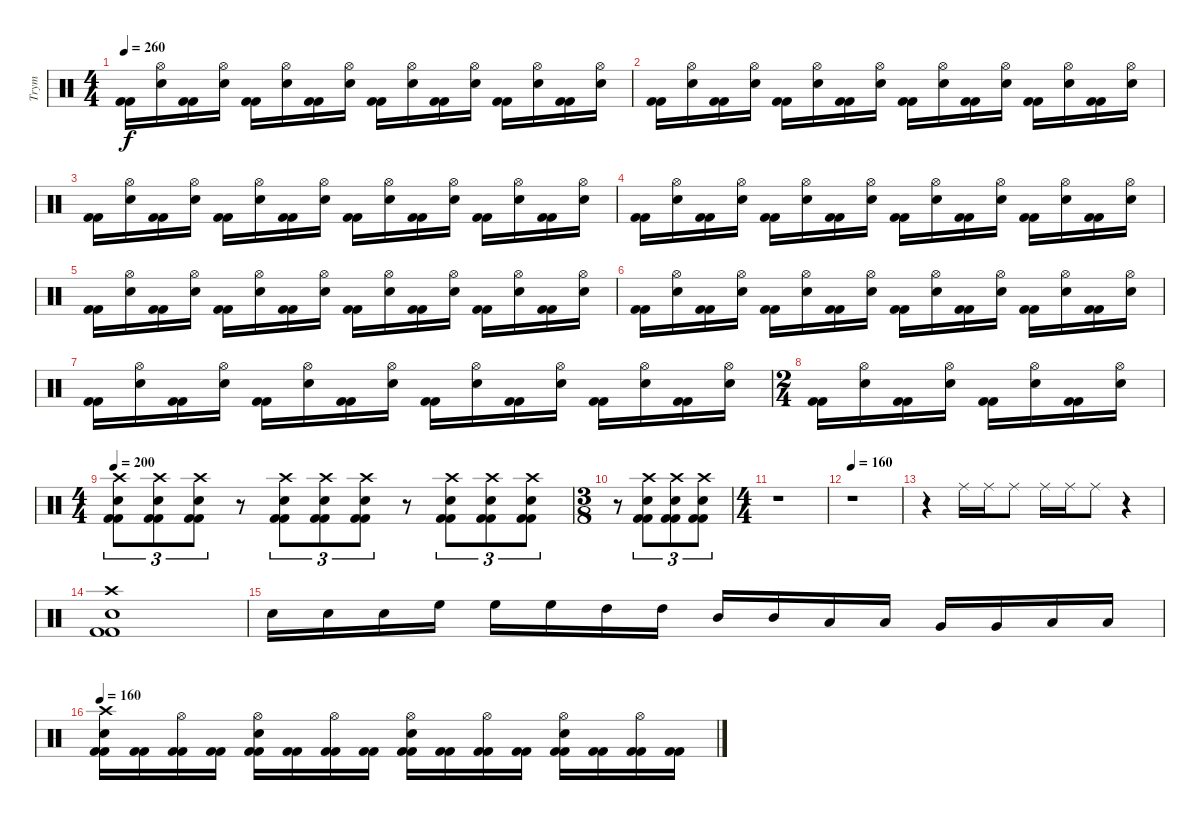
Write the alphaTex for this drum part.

\track ("Trym" "Trym") {instrument percussion}
\staff {score}
\articulation defaults
\ts (4 4)
\tempo 260
\clef neutral
\ks c
("Kick (hit) 2" "Kick (hit) 2").16{dy f} ("Hi-Hat (open)" "Snare (hit) 2").16 ("Kick (hit) 2" "Kick (hit) 2").16 ("Hi-Hat (open)" "Snare (hit) 2").16 ("Kick (hit) 2" "Kick (hit) 2").16 ("Hi-Hat (open)" "Snare (hit) 2").16 ("Kick (hit) 2" "Kick (hit) 2").16 ("Hi-Hat (open)" "Snare (hit) 2").16 ("Kick (hit) 2" "Kick (hit) 2").16 ("Hi-Hat (open)" "Snare (hit) 2").16 ("Kick (hit) 2" "Kick (hit) 2").16 ("Hi-Hat (open)" "Snare (hit) 2").16 ("Kick (hit) 2" "Kick (hit) 2").16 ("Hi-Hat (open)" "Snare (hit) 2").16 ("Kick (hit) 2" "Kick (hit) 2").16 ("Hi-Hat (open)" "Snare (hit) 2").16 |
("Kick (hit) 2" "Kick (hit) 2").16 ("Hi-Hat (open)" "Snare (hit) 2").16 ("Kick (hit) 2" "Kick (hit) 2").16 ("Hi-Hat (open)" "Snare (hit) 2").16 ("Kick (hit) 2" "Kick (hit) 2").16 ("Hi-Hat (open)" "Snare (hit) 2").16 ("Kick (hit) 2" "Kick (hit) 2").16 ("Hi-Hat (open)" "Snare (hit) 2").16 ("Kick (hit) 2" "Kick (hit) 2").16 ("Hi-Hat (open)" "Snare (hit) 2").16 ("Kick (hit) 2" "Kick (hit) 2").16 ("Hi-Hat (open)" "Snare (hit) 2").16 ("Kick (hit) 2" "Kick (hit) 2").16 ("Hi-Hat (open)" "Snare (hit) 2").16 ("Kick (hit) 2" "Kick (hit) 2").16 ("Hi-Hat (open)" "Snare (hit) 2").16 |
("Kick (hit) 2" "Kick (hit) 2").16 ("Hi-Hat (open)" "Snare (hit) 2").16 ("Kick (hit) 2" "Kick (hit) 2").16 ("Hi-Hat (open)" "Snare (hit) 2").16 ("Kick (hit) 2" "Kick (hit) 2").16 ("Hi-Hat (open)" "Snare (hit) 2").16 ("Kick (hit) 2" "Kick (hit) 2").16 ("Hi-Hat (open)" "Snare (hit) 2").16 ("Kick (hit) 2" "Kick (hit) 2").16 ("Hi-Hat (open)" "Snare (hit) 2").16 ("Kick (hit) 2" "Kick (hit) 2").16 ("Hi-Hat (open)" "Snare (hit) 2").16 ("Kick (hit) 2" "Kick (hit) 2").16 ("Hi-Hat (open)" "Snare (hit) 2").16 ("Kick (hit) 2" "Kick (hit) 2").16 ("Hi-Hat (open)" "Snare (hit) 2").16 |
("Kick (hit) 2" "Kick (hit) 2").16 ("Hi-Hat (open)" "Snare (hit) 2").16 ("Kick (hit) 2" "Kick (hit) 2").16 ("Hi-Hat (open)" "Snare (hit) 2").16 ("Kick (hit) 2" "Kick (hit) 2").16 ("Hi-Hat (open)" "Snare (hit) 2").16 ("Kick (hit) 2" "Kick (hit) 2").16 ("Hi-Hat (open)" "Snare (hit) 2").16 ("Kick (hit) 2" "Kick (hit) 2").16 ("Hi-Hat (open)" "Snare (hit) 2").16 ("Kick (hit) 2" "Kick (hit) 2").16 ("Hi-Hat (open)" "Snare (hit) 2").16 ("Kick (hit) 2" "Kick (hit) 2").16 ("Hi-Hat (open)" "Snare (hit) 2").16 ("Kick (hit) 2" "Kick (hit) 2").16 ("Hi-Hat (open)" "Snare (hit) 2").16 |
("Kick (hit) 2" "Kick (hit) 2").16 ("Hi-Hat (open)" "Snare (hit) 2").16 ("Kick (hit) 2" "Kick (hit) 2").16 ("Hi-Hat (open)" "Snare (hit) 2").16 ("Kick (hit) 2" "Kick (hit) 2").16 ("Hi-Hat (open)" "Snare (hit) 2").16 ("Kick (hit) 2" "Kick (hit) 2").16 ("Hi-Hat (open)" "Snare (hit) 2").16 ("Kick (hit) 2" "Kick (hit) 2").16 ("Hi-Hat (open)" "Snare (hit) 2").16 ("Kick (hit) 2" "Kick (hit) 2").16 ("Hi-Hat (open)" "Snare (hit) 2").16 ("Kick (hit) 2" "Kick (hit) 2").16 ("Hi-Hat (open)" "Snare (hit) 2").16 ("Kick (hit) 2" "Kick (hit) 2").16 ("Hi-Hat (open)" "Snare (hit) 2").16 |
("Kick (hit) 2" "Kick (hit) 2").16 ("Hi-Hat (open)" "Snare (hit) 2").16 ("Kick (hit) 2" "Kick (hit) 2").16 ("Hi-Hat (open)" "Snare (hit) 2").16 ("Kick (hit) 2" "Kick (hit) 2").16 ("Hi-Hat (open)" "Snare (hit) 2").16 ("Kick (hit) 2" "Kick (hit) 2").16 ("Hi-Hat (open)" "Snare (hit) 2").16 ("Kick (hit) 2" "Kick (hit) 2").16 ("Hi-Hat (open)" "Snare (hit) 2").16 ("Kick (hit) 2" "Kick (hit) 2").16 ("Hi-Hat (open)" "Snare (hit) 2").16 ("Kick (hit) 2" "Kick (hit) 2").16 ("Hi-Hat (open)" "Snare (hit) 2").16 ("Kick (hit) 2" "Kick (hit) 2").16 ("Hi-Hat (open)" "Snare (hit) 2").16 |
("Kick (hit) 2" "Kick (hit) 2").16 ("Hi-Hat (open)" "Snare (hit) 2").16 ("Kick (hit) 2" "Kick (hit) 2").16 ("Hi-Hat (open)" "Snare (hit) 2").16 ("Kick (hit) 2" "Kick (hit) 2").16 ("Hi-Hat (open)" "Snare (hit) 2").16 ("Kick (hit) 2" "Kick (hit) 2").16 ("Hi-Hat (open)" "Snare (hit) 2").16 ("Kick (hit) 2" "Kick (hit) 2").16 ("Hi-Hat (open)" "Snare (hit) 2").16 ("Kick (hit) 2" "Kick (hit) 2").16 ("Hi-Hat (open)" "Snare (hit) 2").16 ("Kick (hit) 2" "Kick (hit) 2").16 ("Hi-Hat (open)" "Snare (hit) 2").16 ("Kick (hit) 2" "Kick (hit) 2").16 ("Hi-Hat (open)" "Snare (hit) 2").16 |
\ts (2 4)
("Kick (hit) 2" "Kick (hit) 2").16 ("Hi-Hat (open)" "Snare (hit) 2").16 ("Kick (hit) 2" "Kick (hit) 2").16 ("Hi-Hat (open)" "Snare (hit) 2").16 ("Kick (hit) 2" "Kick (hit) 2").16 ("Hi-Hat (open)" "Snare (hit) 2").16 ("Kick (hit) 2" "Kick (hit) 2").16 ("Hi-Hat (open)" "Snare (hit) 2").16 |
\ts (4 4)
\tempo 200
("Kick (hit) 2" "Crash high (hit)" "Snare (hit) 2" "Kick (hit) 2").8{tu (3 2)} ("Kick (hit) 2" "Crash high (hit)" "Snare (hit) 2" "Kick (hit) 2").8{tu (3 2)} ("Kick (hit) 2" "Crash high (hit)" "Snare (hit) 2" "Kick (hit) 2").8{tu (3 2)} r.8 ("Kick (hit) 2" "Crash high (hit)" "Snare (hit) 2" "Kick (hit) 2").8{tu (3 2)} ("Kick (hit) 2" "Crash high (hit)" "Snare (hit) 2" "Kick (hit) 2").8{tu (3 2)} ("Kick (hit) 2" "Crash high (hit)" "Snare (hit) 2" "Kick (hit) 2").8{tu (3 2)} r.8 ("Kick (hit) 2" "Crash high (hit)" "Snare (hit) 2" "Kick (hit) 2").8{tu (3 2)} ("Kick (hit) 2" "Crash high (hit)" "Snare (hit) 2" "Kick (hit) 2").8{tu (3 2)} ("Kick (hit) 2" "Crash high (hit)" "Snare (hit) 2" "Kick (hit) 2").8{tu (3 2)} |
\ts (3 8)
r.8 ("Kick (hit) 2" "Crash high (hit)" "Snare (hit) 2" "Kick (hit) 2").8{tu (3 2)} ("Kick (hit) 2" "Crash high (hit)" "Snare (hit) 2" "Kick (hit) 2").8{tu (3 2)} ("Kick (hit) 2" "Crash high (hit)" "Snare (hit) 2" "Kick (hit) 2").8{tu (3 2)} |
\ts (4 4)
r.1 |
\tempo 160
r.1 |
r.4 "Ride (middle)".16 "Ride (middle)".16 "Ride (middle)".8 "Ride (middle)".16 "Ride (middle)".16 "Ride (middle)".8 r.4 |
("Kick (hit) 2" "Crash high (hit)" "Snare (hit) 2" "Kick (hit) 2").1 |
"Snare (hit) 2".16 "Snare (hit) 2".16 "Snare (hit) 2".16 "High Floor Tom (hit)".16 "High Floor Tom (hit)".16 "High Floor Tom (hit)".16 "High Tom (hit)".16 "High Tom (hit)".16 "Mid Tom (hit)".16 "Mid Tom (hit)".16 "Low Tom (hit)".16 "Low Tom (hit)".16 "Very Low Tom (hit)".16 "Very Low Tom (hit)".16 "Low Floor Tom (hit)".16 "Low Floor Tom (hit)".16 |
\tempo 160
("Kick (hit) 2" "Crash high (hit)" "Snare (hit) 2" "Kick (hit) 2").16 ("Kick (hit) 2" "Kick (hit) 2").16 ("Kick (hit) 2" "Hi-Hat (open)" "Kick (hit) 2").16 ("Kick (hit) 2" "Kick (hit) 2").16 ("Kick (hit) 2" "Hi-Hat (open)" "Snare (hit) 2" "Kick (hit) 2").16 ("Kick (hit) 2" "Kick (hit) 2").16 ("Kick (hit) 2" "Hi-Hat (open)" "Kick (hit) 2").16 ("Kick (hit) 2" "Kick (hit) 2").16 ("Kick (hit) 2" "Hi-Hat (open)" "Snare (hit) 2" "Kick (hit) 2").16 ("Kick (hit) 2" "Kick (hit) 2").16 ("Kick (hit) 2" "Hi-Hat (open)" "Kick (hit) 2").16 ("Kick (hit) 2" "Kick (hit) 2").16 ("Kick (hit) 2" "Hi-Hat (open)" "Snare (hit) 2" "Kick (hit) 2").16 ("Kick (hit) 2" "Kick (hit) 2").16 ("Kick (hit) 2" "Hi-Hat (open)" "Kick (hit) 2").16 ("Kick (hit) 2" "Kick (hit) 2").16
